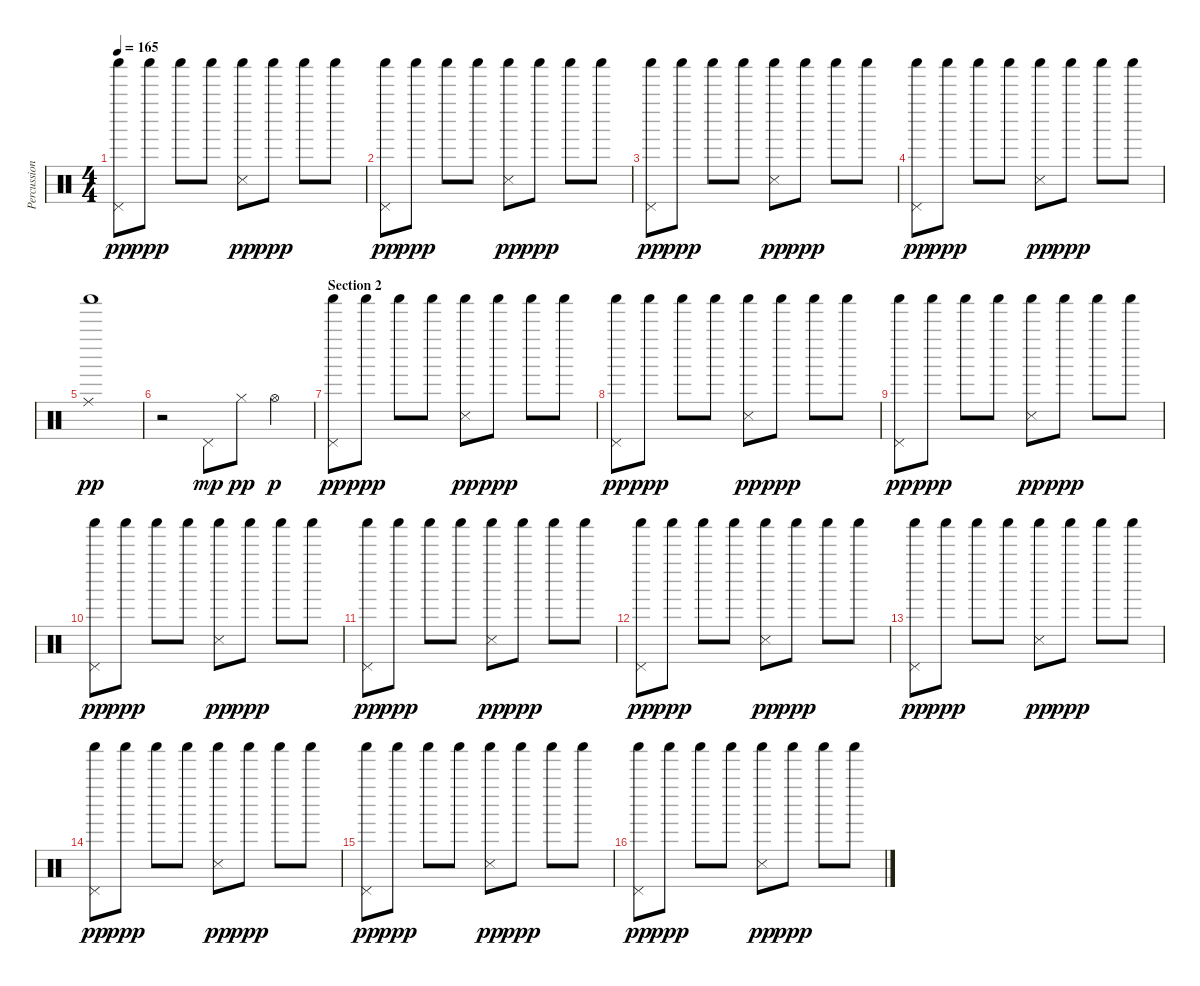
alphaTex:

\track ("Percussion" "Percussion") {instrument percussion}
\staff {score}
\articulation defaults
\ts (4 4)
\tempo 165
\clef neutral
\ks c
("Pedal Hi-Hat (hit)" "Shaker (hit)").8{dy pp} "Shaker (hit)".8{dy ppp} "Shaker (hit)".8 "Shaker (hit)".8 ("Snare (side stick) 3" "Shaker (hit)").8{dy pp} "Shaker (hit)".8{dy ppp} "Shaker (hit)".8 "Shaker (hit)".8 |
("Pedal Hi-Hat (hit)" "Shaker (hit)").8{dy pp} "Shaker (hit)".8{dy ppp} "Shaker (hit)".8 "Shaker (hit)".8 ("Snare (side stick) 3" "Shaker (hit)").8{dy pp} "Shaker (hit)".8{dy ppp} "Shaker (hit)".8 "Shaker (hit)".8 |
("Pedal Hi-Hat (hit)" "Shaker (hit)").8{dy pp} "Shaker (hit)".8{dy ppp} "Shaker (hit)".8 "Shaker (hit)".8 ("Snare (side stick) 3" "Shaker (hit)").8{dy pp} "Shaker (hit)".8{dy ppp} "Shaker (hit)".8 "Shaker (hit)".8 |
("Pedal Hi-Hat (hit)" "Shaker (hit)").8{dy pp} "Shaker (hit)".8{dy ppp} "Shaker (hit)".8 "Shaker (hit)".8 ("Snare (side stick) 3" "Shaker (hit)").8{dy pp} "Shaker (hit)".8{dy ppp} "Shaker (hit)".8 "Shaker (hit)".8 |
("Ride (middle)" "Shaker (hit)").1{dy pp} |
r.2 "Pedal Hi-Hat (hit)".8{dy mp} "Hi-Hat (closed)".8{dy pp} "Hi-Hat (open)".4{dy p} |
\section ("" "Section 2")
("Pedal Hi-Hat (hit)" "Shaker (hit)").8{dy pp} "Shaker (hit)".8{dy ppp} "Shaker (hit)".8 "Shaker (hit)".8 ("Snare (side stick) 3" "Shaker (hit)").8{dy pp} "Shaker (hit)".8{dy ppp} "Shaker (hit)".8 "Shaker (hit)".8 |
("Pedal Hi-Hat (hit)" "Shaker (hit)").8{dy pp} "Shaker (hit)".8{dy ppp} "Shaker (hit)".8 "Shaker (hit)".8 ("Snare (side stick) 3" "Shaker (hit)").8{dy pp} "Shaker (hit)".8{dy ppp} "Shaker (hit)".8 "Shaker (hit)".8 |
("Pedal Hi-Hat (hit)" "Shaker (hit)").8{dy pp} "Shaker (hit)".8{dy ppp} "Shaker (hit)".8 "Shaker (hit)".8 ("Snare (side stick) 3" "Shaker (hit)").8{dy pp} "Shaker (hit)".8{dy ppp} "Shaker (hit)".8 "Shaker (hit)".8 |
("Pedal Hi-Hat (hit)" "Shaker (hit)").8{dy pp} "Shaker (hit)".8{dy ppp} "Shaker (hit)".8 "Shaker (hit)".8 ("Snare (side stick) 3" "Shaker (hit)").8{dy pp} "Shaker (hit)".8{dy ppp} "Shaker (hit)".8 "Shaker (hit)".8 |
("Pedal Hi-Hat (hit)" "Shaker (hit)").8{dy pp} "Shaker (hit)".8{dy ppp} "Shaker (hit)".8 "Shaker (hit)".8 ("Snare (side stick) 3" "Shaker (hit)").8{dy pp} "Shaker (hit)".8{dy ppp} "Shaker (hit)".8 "Shaker (hit)".8 |
("Pedal Hi-Hat (hit)" "Shaker (hit)").8{dy pp} "Shaker (hit)".8{dy ppp} "Shaker (hit)".8 "Shaker (hit)".8 ("Snare (side stick) 3" "Shaker (hit)").8{dy pp} "Shaker (hit)".8{dy ppp} "Shaker (hit)".8 "Shaker (hit)".8 |
("Pedal Hi-Hat (hit)" "Shaker (hit)").8{dy pp} "Shaker (hit)".8{dy ppp} "Shaker (hit)".8 "Shaker (hit)".8 ("Snare (side stick) 3" "Shaker (hit)").8{dy pp} "Shaker (hit)".8{dy ppp} "Shaker (hit)".8 "Shaker (hit)".8 |
("Pedal Hi-Hat (hit)" "Shaker (hit)").8{dy pp} "Shaker (hit)".8{dy ppp} "Shaker (hit)".8 "Shaker (hit)".8 ("Snare (side stick) 3" "Shaker (hit)").8{dy pp} "Shaker (hit)".8{dy ppp} "Shaker (hit)".8 "Shaker (hit)".8 |
("Pedal Hi-Hat (hit)" "Shaker (hit)").8{dy pp} "Shaker (hit)".8{dy ppp} "Shaker (hit)".8 "Shaker (hit)".8 ("Snare (side stick) 3" "Shaker (hit)").8{dy pp} "Shaker (hit)".8{dy ppp} "Shaker (hit)".8 "Shaker (hit)".8 |
("Pedal Hi-Hat (hit)" "Shaker (hit)").8{dy pp} "Shaker (hit)".8{dy ppp} "Shaker (hit)".8 "Shaker (hit)".8 ("Snare (side stick) 3" "Shaker (hit)").8{dy pp} "Shaker (hit)".8{dy ppp} "Shaker (hit)".8 "Shaker (hit)".8
